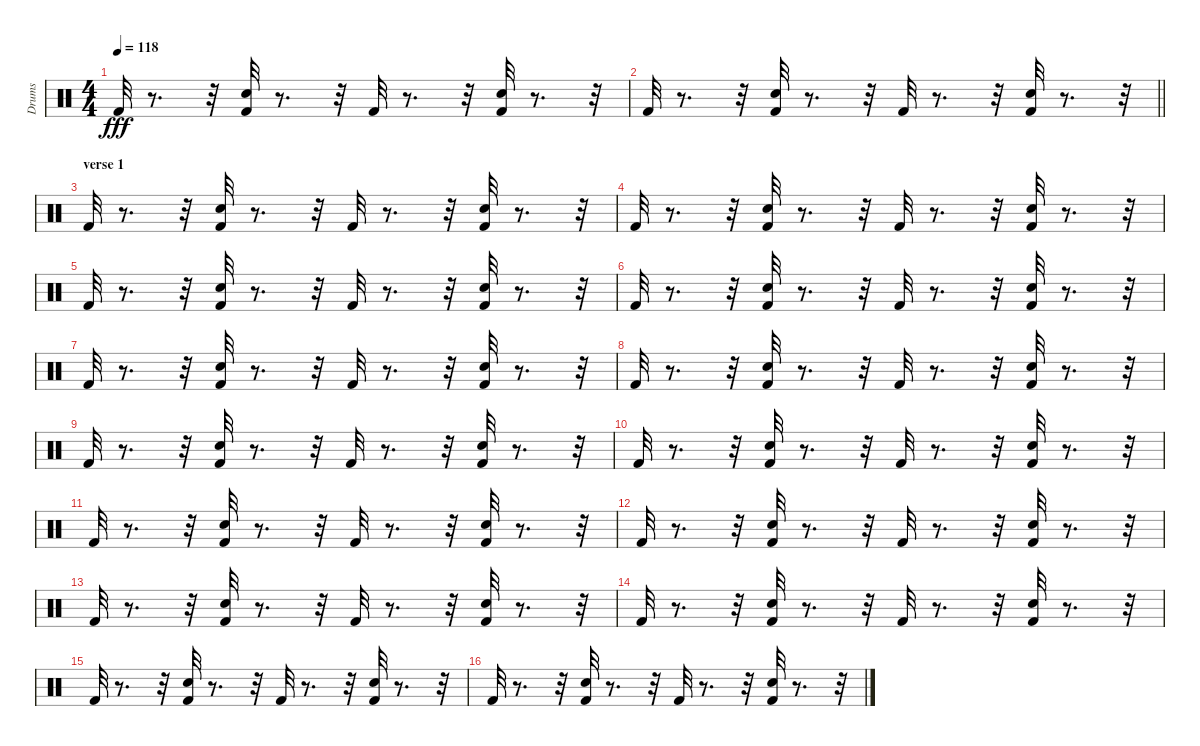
\track ("Drums" "Drums") {instrument percussion}
\staff {score}
\articulation defaults
\ts (4 4)
\tempo 118
\clef neutral
\ks c "Kick (hit) 2".32{dy fff}
r.8{d} r.32 ("Kick (hit) 2" "Electric Snare (hit)").32 r.8{d} r.32 "Kick (hit) 2".32 r.8{d} r.32 ("Kick (hit) 2" "Electric Snare (hit)").32 r.8{d} r.32 |
\barLineRight lightlight "Kick (hit) 2".32
r.8{d} r.32 ("Kick (hit) 2" "Electric Snare (hit)").32 r.8{d} r.32 "Kick (hit) 2".32 r.8{d} r.32 ("Kick (hit) 2" "Electric Snare (hit)").32 r.8{d} r.32 |
\section ("" "verse 1")
"Kick (hit) 2".32 r.8{d} r.32 ("Kick (hit) 2" "Electric Snare (hit)").32 r.8{d} r.32 "Kick (hit) 2".32 r.8{d} r.32 ("Kick (hit) 2" "Electric Snare (hit)").32 r.8{d} r.32 |
"Kick (hit) 2".32 r.8{d} r.32 ("Kick (hit) 2" "Electric Snare (hit)").32 r.8{d} r.32 "Kick (hit) 2".32 r.8{d} r.32 ("Kick (hit) 2" "Electric Snare (hit)").32 r.8{d} r.32 |
"Kick (hit) 2".32 r.8{d} r.32 ("Kick (hit) 2" "Electric Snare (hit)").32 r.8{d} r.32 "Kick (hit) 2".32 r.8{d} r.32 ("Kick (hit) 2" "Electric Snare (hit)").32 r.8{d} r.32 |
"Kick (hit) 2".32 r.8{d} r.32 ("Kick (hit) 2" "Electric Snare (hit)").32 r.8{d} r.32 "Kick (hit) 2".32 r.8{d} r.32 ("Kick (hit) 2" "Electric Snare (hit)").32 r.8{d} r.32 |
"Kick (hit) 2".32 r.8{d} r.32 ("Kick (hit) 2" "Electric Snare (hit)").32 r.8{d} r.32 "Kick (hit) 2".32 r.8{d} r.32 ("Kick (hit) 2" "Electric Snare (hit)").32 r.8{d} r.32 |
"Kick (hit) 2".32 r.8{d} r.32 ("Kick (hit) 2" "Electric Snare (hit)").32 r.8{d} r.32 "Kick (hit) 2".32 r.8{d} r.32 ("Kick (hit) 2" "Electric Snare (hit)").32 r.8{d} r.32 |
"Kick (hit) 2".32 r.8{d} r.32 ("Kick (hit) 2" "Electric Snare (hit)").32 r.8{d} r.32 "Kick (hit) 2".32 r.8{d} r.32 ("Kick (hit) 2" "Electric Snare (hit)").32 r.8{d} r.32 |
"Kick (hit) 2".32 r.8{d} r.32 ("Kick (hit) 2" "Electric Snare (hit)").32 r.8{d} r.32 "Kick (hit) 2".32 r.8{d} r.32 ("Kick (hit) 2" "Electric Snare (hit)").32 r.8{d} r.32 |
"Kick (hit) 2".32 r.8{d} r.32 ("Kick (hit) 2" "Electric Snare (hit)").32 r.8{d} r.32 "Kick (hit) 2".32 r.8{d} r.32 ("Kick (hit) 2" "Electric Snare (hit)").32 r.8{d} r.32 |
"Kick (hit) 2".32 r.8{d} r.32 ("Kick (hit) 2" "Electric Snare (hit)").32 r.8{d} r.32 "Kick (hit) 2".32 r.8{d} r.32 ("Kick (hit) 2" "Electric Snare (hit)").32 r.8{d} r.32 |
"Kick (hit) 2".32 r.8{d} r.32 ("Kick (hit) 2" "Electric Snare (hit)").32 r.8{d} r.32 "Kick (hit) 2".32 r.8{d} r.32 ("Kick (hit) 2" "Electric Snare (hit)").32 r.8{d} r.32 |
"Kick (hit) 2".32 r.8{d} r.32 ("Kick (hit) 2" "Electric Snare (hit)").32 r.8{d} r.32 "Kick (hit) 2".32 r.8{d} r.32 ("Kick (hit) 2" "Electric Snare (hit)").32 r.8{d} r.32 |
"Kick (hit) 2".32 r.8{d} r.32 ("Kick (hit) 2" "Electric Snare (hit)").32 r.8{d} r.32 "Kick (hit) 2".32 r.8{d} r.32 ("Kick (hit) 2" "Electric Snare (hit)").32 r.8{d} r.32 |
"Kick (hit) 2".32 r.8{d} r.32 ("Kick (hit) 2" "Electric Snare (hit)").32 r.8{d} r.32 "Kick (hit) 2".32 r.8{d} r.32 ("Kick (hit) 2" "Electric Snare (hit)").32 r.8{d} r.32
